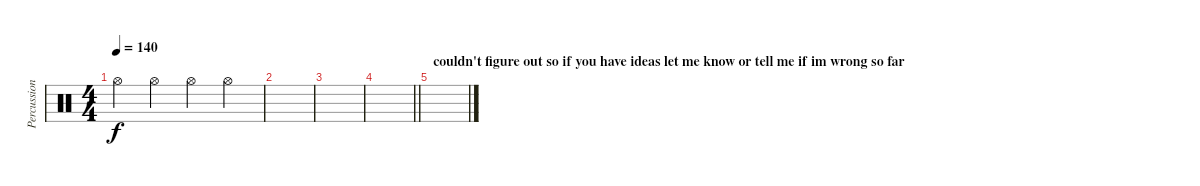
\track ("Percussion" "Percussion") {instrument percussion}
\staff {score}
\articulation defaults
\ts (4 4)
\tempo 140
\clef neutral
\ks c "Hi-Hat (open)".4{dy f} "Hi-Hat (open)".4 "Hi-Hat (open)".4 "Hi-Hat (open)".4
|
|
|
\barLineRight lightlight
|
\section ("" "couldn't figure out so if you have ideas let me know or tell me if im wrong so far")
